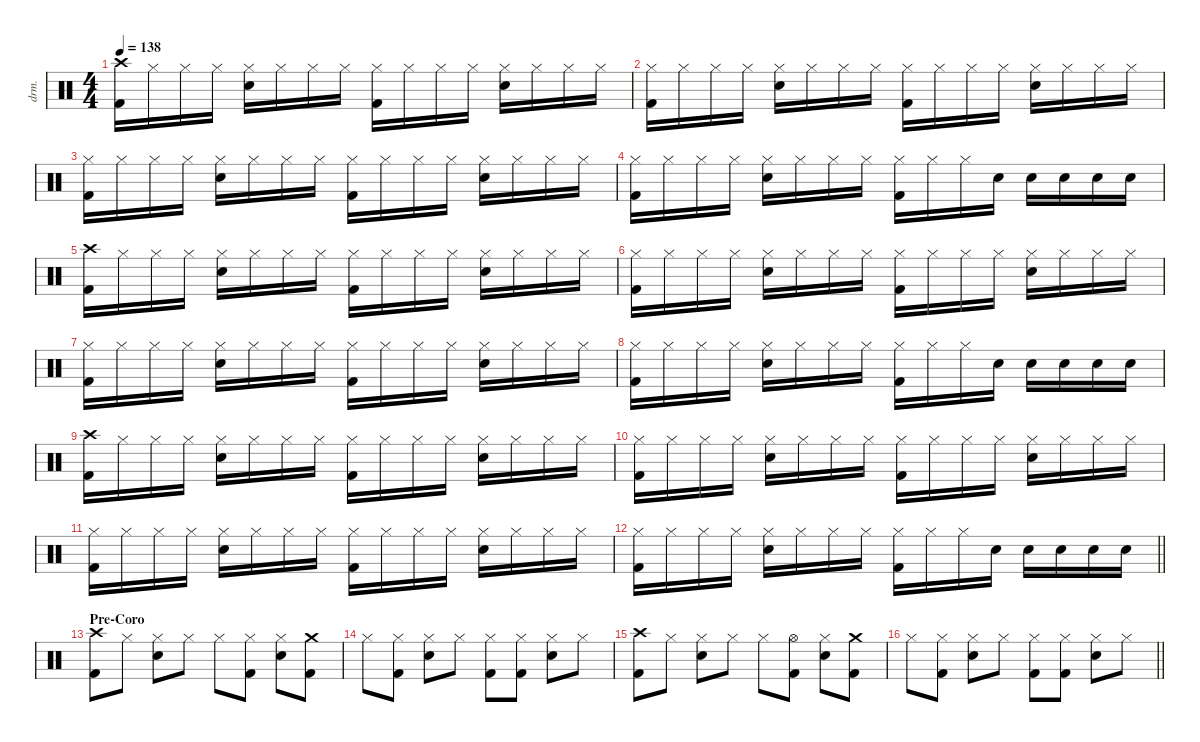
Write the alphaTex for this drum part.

\defaultSystemsLayout 4
\hideDynamics
\bracketExtendMode nobrackets
\otherSystemsTrackNameOrientation horizontal
\track ("Lee Kerslake" "drm.") {instrument percussion}
\staff {score}
\articulation defaults
\ts (4 4)
\tempo 138
\clef neutral
\ks c
("Crash high (hit)" "Kick (hit) 2").16{dy f beam Down} "Hi-Hat (closed)".16{beam Down} "Hi-Hat (closed)".16{beam Down} "Hi-Hat (closed)".16{beam Down} ("Hi-Hat (closed)" "Snare (hit) 2").16{beam Down} "Hi-Hat (closed)".16{beam Down} "Hi-Hat (closed)".16{beam Down} "Hi-Hat (closed)".16{beam Down} ("Hi-Hat (closed)" "Kick (hit) 2").16{beam Down} "Hi-Hat (closed)".16{beam Down} "Hi-Hat (closed)".16{beam Down} "Hi-Hat (closed)".16{beam Down} ("Hi-Hat (closed)" "Snare (hit) 2").16{beam Down} "Hi-Hat (closed)".16{beam Down} "Hi-Hat (closed)".16{beam Down} "Hi-Hat (closed)".16{beam Down} |
("Hi-Hat (closed)" "Kick (hit) 2").16{beam Down} "Hi-Hat (closed)".16{beam Down} "Hi-Hat (closed)".16{beam Down} "Hi-Hat (closed)".16{beam Down} ("Hi-Hat (closed)" "Snare (hit) 2").16{beam Down} "Hi-Hat (closed)".16{beam Down} "Hi-Hat (closed)".16{beam Down} "Hi-Hat (closed)".16{beam Down} ("Hi-Hat (closed)" "Kick (hit) 2").16{beam Down} "Hi-Hat (closed)".16{beam Down} "Hi-Hat (closed)".16{beam Down} "Hi-Hat (closed)".16{beam Down} ("Hi-Hat (closed)" "Snare (hit) 2").16{beam Down} "Hi-Hat (closed)".16{beam Down} "Hi-Hat (closed)".16{beam Down} "Hi-Hat (closed)".16{beam Down} |
("Hi-Hat (closed)" "Kick (hit) 2").16{beam Down} "Hi-Hat (closed)".16{beam Down} "Hi-Hat (closed)".16{beam Down} "Hi-Hat (closed)".16{beam Down} ("Hi-Hat (closed)" "Snare (hit) 2").16{beam Down} "Hi-Hat (closed)".16{beam Down} "Hi-Hat (closed)".16{beam Down} "Hi-Hat (closed)".16{beam Down} ("Hi-Hat (closed)" "Kick (hit) 2").16{beam Down} "Hi-Hat (closed)".16{beam Down} "Hi-Hat (closed)".16{beam Down} "Hi-Hat (closed)".16{beam Down} ("Hi-Hat (closed)" "Snare (hit) 2").16{beam Down} "Hi-Hat (closed)".16{beam Down} "Hi-Hat (closed)".16{beam Down} "Hi-Hat (closed)".16{beam Down} |
("Hi-Hat (closed)" "Kick (hit) 2").16{beam Down} "Hi-Hat (closed)".16{beam Down} "Hi-Hat (closed)".16{beam Down} "Hi-Hat (closed)".16{beam Down} ("Hi-Hat (closed)" "Snare (hit) 2").16{beam Down} "Hi-Hat (closed)".16{beam Down} "Hi-Hat (closed)".16{beam Down} "Hi-Hat (closed)".16{beam Down} ("Hi-Hat (closed)" "Kick (hit) 2").16{beam Down} "Hi-Hat (closed)".16{beam Down} "Hi-Hat (closed)".16{beam Down} "Snare (hit) 2".16{beam Down} "Snare (hit) 2".16{beam Down} "Snare (hit) 2".16{beam Down} "Snare (hit) 2".16{beam Down} "Snare (hit) 2".16{beam Down} |
("Crash high (hit)" "Kick (hit) 2").16{beam Down} "Hi-Hat (closed)".16{beam Down} "Hi-Hat (closed)".16{beam Down} "Hi-Hat (closed)".16{beam Down} ("Hi-Hat (closed)" "Snare (hit) 2").16{beam Down} "Hi-Hat (closed)".16{beam Down} "Hi-Hat (closed)".16{beam Down} "Hi-Hat (closed)".16{beam Down} ("Hi-Hat (closed)" "Kick (hit) 2").16{beam Down} "Hi-Hat (closed)".16{beam Down} "Hi-Hat (closed)".16{beam Down} "Hi-Hat (closed)".16{beam Down} ("Hi-Hat (closed)" "Snare (hit) 2").16{beam Down} "Hi-Hat (closed)".16{beam Down} "Hi-Hat (closed)".16{beam Down} "Hi-Hat (closed)".16{beam Down} |
("Hi-Hat (closed)" "Kick (hit) 2").16{beam Down} "Hi-Hat (closed)".16{beam Down} "Hi-Hat (closed)".16{beam Down} "Hi-Hat (closed)".16{beam Down} ("Hi-Hat (closed)" "Snare (hit) 2").16{beam Down} "Hi-Hat (closed)".16{beam Down} "Hi-Hat (closed)".16{beam Down} "Hi-Hat (closed)".16{beam Down} ("Hi-Hat (closed)" "Kick (hit) 2").16{beam Down} "Hi-Hat (closed)".16{beam Down} "Hi-Hat (closed)".16{beam Down} "Hi-Hat (closed)".16{beam Down} ("Hi-Hat (closed)" "Snare (hit) 2").16{beam Down} "Hi-Hat (closed)".16{beam Down} "Hi-Hat (closed)".16{beam Down} "Hi-Hat (closed)".16{beam Down} |
("Hi-Hat (closed)" "Kick (hit) 2").16{beam Down} "Hi-Hat (closed)".16{beam Down} "Hi-Hat (closed)".16{beam Down} "Hi-Hat (closed)".16{beam Down} ("Hi-Hat (closed)" "Snare (hit) 2").16{beam Down} "Hi-Hat (closed)".16{beam Down} "Hi-Hat (closed)".16{beam Down} "Hi-Hat (closed)".16{beam Down} ("Hi-Hat (closed)" "Kick (hit) 2").16{beam Down} "Hi-Hat (closed)".16{beam Down} "Hi-Hat (closed)".16{beam Down} "Hi-Hat (closed)".16{beam Down} ("Hi-Hat (closed)" "Snare (hit) 2").16{beam Down} "Hi-Hat (closed)".16{beam Down} "Hi-Hat (closed)".16{beam Down} "Hi-Hat (closed)".16{beam Down} |
("Hi-Hat (closed)" "Kick (hit) 2").16{beam Down} "Hi-Hat (closed)".16{beam Down} "Hi-Hat (closed)".16{beam Down} "Hi-Hat (closed)".16{beam Down} ("Hi-Hat (closed)" "Snare (hit) 2").16{beam Down} "Hi-Hat (closed)".16{beam Down} "Hi-Hat (closed)".16{beam Down} "Hi-Hat (closed)".16{beam Down} ("Hi-Hat (closed)" "Kick (hit) 2").16{beam Down} "Hi-Hat (closed)".16{beam Down} "Hi-Hat (closed)".16{beam Down} "Snare (hit) 2".16{beam Down} "Snare (hit) 2".16{beam Down} "Snare (hit) 2".16{beam Down} "Snare (hit) 2".16{beam Down} "Snare (hit) 2".16{beam Down} |
("Crash high (hit)" "Kick (hit) 2").16{beam Down} "Hi-Hat (closed)".16{beam Down} "Hi-Hat (closed)".16{beam Down} "Hi-Hat (closed)".16{beam Down} ("Hi-Hat (closed)" "Snare (hit) 2").16{beam Down} "Hi-Hat (closed)".16{beam Down} "Hi-Hat (closed)".16{beam Down} "Hi-Hat (closed)".16{beam Down} ("Hi-Hat (closed)" "Kick (hit) 2").16{beam Down} "Hi-Hat (closed)".16{beam Down} "Hi-Hat (closed)".16{beam Down} "Hi-Hat (closed)".16{beam Down} ("Hi-Hat (closed)" "Snare (hit) 2").16{beam Down} "Hi-Hat (closed)".16{beam Down} "Hi-Hat (closed)".16{beam Down} "Hi-Hat (closed)".16{beam Down} |
("Hi-Hat (closed)" "Kick (hit) 2").16{beam Down} "Hi-Hat (closed)".16{beam Down} "Hi-Hat (closed)".16{beam Down} "Hi-Hat (closed)".16{beam Down} ("Hi-Hat (closed)" "Snare (hit) 2").16{beam Down} "Hi-Hat (closed)".16{beam Down} "Hi-Hat (closed)".16{beam Down} "Hi-Hat (closed)".16{beam Down} ("Hi-Hat (closed)" "Kick (hit) 2").16{beam Down} "Hi-Hat (closed)".16{beam Down} "Hi-Hat (closed)".16{beam Down} "Hi-Hat (closed)".16{beam Down} ("Hi-Hat (closed)" "Snare (hit) 2").16{beam Down} "Hi-Hat (closed)".16{beam Down} "Hi-Hat (closed)".16{beam Down} "Hi-Hat (closed)".16{beam Down} |
("Hi-Hat (closed)" "Kick (hit) 2").16{beam Down} "Hi-Hat (closed)".16{beam Down} "Hi-Hat (closed)".16{beam Down} "Hi-Hat (closed)".16{beam Down} ("Hi-Hat (closed)" "Snare (hit) 2").16{beam Down} "Hi-Hat (closed)".16{beam Down} "Hi-Hat (closed)".16{beam Down} "Hi-Hat (closed)".16{beam Down} ("Hi-Hat (closed)" "Kick (hit) 2").16{beam Down} "Hi-Hat (closed)".16{beam Down} "Hi-Hat (closed)".16{beam Down} "Hi-Hat (closed)".16{beam Down} ("Hi-Hat (closed)" "Snare (hit) 2").16{beam Down} "Hi-Hat (closed)".16{beam Down} "Hi-Hat (closed)".16{beam Down} "Hi-Hat (closed)".16{beam Down} |
\barLineRight lightlight
("Hi-Hat (closed)" "Kick (hit) 2").16{beam Down} "Hi-Hat (closed)".16{beam Down} "Hi-Hat (closed)".16{beam Down} "Hi-Hat (closed)".16{beam Down} ("Hi-Hat (closed)" "Snare (hit) 2").16{beam Down} "Hi-Hat (closed)".16{beam Down} "Hi-Hat (closed)".16{beam Down} "Hi-Hat (closed)".16{beam Down} ("Hi-Hat (closed)" "Kick (hit) 2").16{beam Down} "Hi-Hat (closed)".16{beam Down} "Hi-Hat (closed)".16{beam Down} "Snare (hit) 2".16{beam Down} "Snare (hit) 2".16{beam Down} "Snare (hit) 2".16{beam Down} "Snare (hit) 2".16{beam Down} "Snare (hit) 2".16{beam Down} |
\section ("" "Pre-Coro")
("Crash high (hit)" "Kick (hit) 2").8{beam Down} "Hi-Hat (closed)".8{beam Down} ("Hi-Hat (closed)" "Snare (hit) 2").8{beam Down} "Hi-Hat (closed)".8{beam Down} "Hi-Hat (closed)".8{beam Down} ("Hi-Hat (closed)" "Kick (hit) 2").8{beam Down} ("Hi-Hat (closed)" "Snare (hit) 2").8{beam Down} ("Crash medium (hit)" "Kick (hit) 2").8{beam Down} |
"Hi-Hat (closed)".8{beam Down} ("Hi-Hat (closed)" "Kick (hit) 2").8{beam Down} ("Hi-Hat (closed)" "Snare (hit) 2").8{beam Down} "Hi-Hat (closed)".8{beam Down} ("Hi-Hat (closed)" "Kick (hit) 2").8{beam Down} ("Hi-Hat (closed)" "Kick (hit) 2").8{beam Down} ("Hi-Hat (closed)" "Snare (hit) 2").8{beam Down} "Hi-Hat (closed)".8{beam Down} |
("Crash high (hit)" "Kick (hit) 2").8{beam Down} "Hi-Hat (closed)".8{beam Down} ("Hi-Hat (closed)" "Snare (hit) 2").8{beam Down} "Hi-Hat (closed)".8{beam Down} "Hi-Hat (closed)".8{beam Down} ("Hi-Hat (open)" "Kick (hit) 2").8{beam Down} ("Hi-Hat (closed)" "Snare (hit) 2").8{beam Down} ("Crash medium (hit)" "Kick (hit) 2").8{beam Down} |
\barLineRight lightlight "Hi-Hat (closed)".8{beam Down}
("Hi-Hat (closed)" "Kick (hit) 2").8{beam Down} ("Hi-Hat (closed)" "Snare (hit) 2").8{beam Down} "Hi-Hat (closed)".8{beam Down} ("Hi-Hat (closed)" "Kick (hit) 2").8{beam Down} ("Hi-Hat (closed)" "Kick (hit) 2").8{beam Down} ("Hi-Hat (closed)" "Snare (hit) 2").8{beam Down} "Hi-Hat (closed)".8{beam Down}
